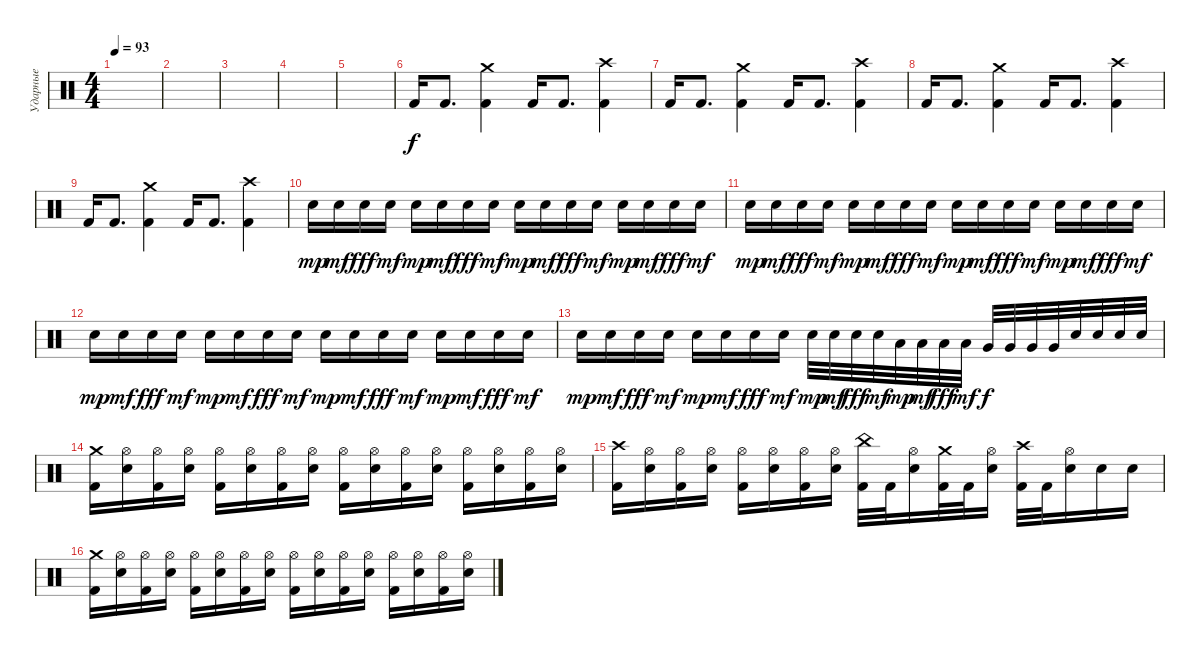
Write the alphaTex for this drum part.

\track ("Ударные" "Ударные") {instrument percussion}
\staff {score}
\articulation defaults
\ts (4 4)
\tempo 93
\clef neutral
\ks c
|
|
|
|
|
"Kick (hit) 2".16 "Kick (hit) 2".8{d} ("Crash medium (hit)" "Kick (hit) 2").4 "Kick (hit) 2".16 "Kick (hit) 2".8{d} ("Crash high (hit)" "Kick (hit) 2").4 |
"Kick (hit) 2".16 "Kick (hit) 2".8{d} ("Crash medium (hit)" "Kick (hit) 2").4 "Kick (hit) 2".16 "Kick (hit) 2".8{d} ("Crash high (hit)" "Kick (hit) 2").4 |
"Kick (hit) 2".16 "Kick (hit) 2".8{d} ("Crash medium (hit)" "Kick (hit) 2").4 "Kick (hit) 2".16 "Kick (hit) 2".8{d} ("Crash high (hit)" "Kick (hit) 2").4 |
"Kick (hit) 2".16 "Kick (hit) 2".8{d} ("Crash medium (hit)" "Kick (hit) 2").4 "Kick (hit) 2".16 "Kick (hit) 2".8{d} ("Crash high (hit)" "Kick (hit) 2").4 |
"Snare (hit) 2".16{dy mp} "Snare (hit) 2".16{dy mf} "Snare (hit) 2".16{dy fff} "Snare (hit) 2".16{dy mf} "Snare (hit) 2".16{dy mp} "Snare (hit) 2".16{dy mf} "Snare (hit) 2".16{dy fff} "Snare (hit) 2".16{dy mf} "Snare (hit) 2".16{dy mp} "Snare (hit) 2".16{dy mf} "Snare (hit) 2".16{dy fff} "Snare (hit) 2".16{dy mf} "Snare (hit) 2".16{dy mp} "Snare (hit) 2".16{dy mf} "Snare (hit) 2".16{dy fff} "Snare (hit) 2".16{dy mf} |
"Snare (hit) 2".16{dy mp} "Snare (hit) 2".16{dy mf} "Snare (hit) 2".16{dy fff} "Snare (hit) 2".16{dy mf} "Snare (hit) 2".16{dy mp} "Snare (hit) 2".16{dy mf} "Snare (hit) 2".16{dy fff} "Snare (hit) 2".16{dy mf} "Snare (hit) 2".16{dy mp} "Snare (hit) 2".16{dy mf} "Snare (hit) 2".16{dy fff} "Snare (hit) 2".16{dy mf} "Snare (hit) 2".16{dy mp} "Snare (hit) 2".16{dy mf} "Snare (hit) 2".16{dy fff} "Snare (hit) 2".16{dy mf} |
"Snare (hit) 2".16{dy mp} "Snare (hit) 2".16{dy mf} "Snare (hit) 2".16{dy fff} "Snare (hit) 2".16{dy mf} "Snare (hit) 2".16{dy mp} "Snare (hit) 2".16{dy mf} "Snare (hit) 2".16{dy fff} "Snare (hit) 2".16{dy mf} "Snare (hit) 2".16{dy mp} "Snare (hit) 2".16{dy mf} "Snare (hit) 2".16{dy fff} "Snare (hit) 2".16{dy mf} "Snare (hit) 2".16{dy mp} "Snare (hit) 2".16{dy mf} "Snare (hit) 2".16{dy fff} "Snare (hit) 2".16{dy mf} |
"Snare (hit) 2".16{dy mp} "Snare (hit) 2".16{dy mf} "Snare (hit) 2".16{dy fff} "Snare (hit) 2".16{dy mf} "Snare (hit) 2".16{dy mp} "Snare (hit) 2".16{dy mf} "Snare (hit) 2".16{dy fff} "Snare (hit) 2".16{dy mf} "Snare (hit) 2".32{dy mp} "Snare (hit) 2".32{dy mf} "Snare (hit) 2".32{dy fff} "Snare (hit) 2".32{dy mf} "Low Tom (hit)".32{dy mp} "Low Tom (hit)".32{dy mf} "Low Tom (hit)".32{dy fff} "Low Tom (hit)".32{dy mf} "Very Low Tom (hit)".32{dy f} "Very Low Tom (hit)".32 "Very Low Tom (hit)".32 "Very Low Tom (hit)".32 "Snare (hit) 2".32 "Snare (hit) 2".32 "Snare (hit) 2".32 "Snare (hit) 2".32 |
("Crash medium (hit)" "Kick (hit) 2").16 ("Hi-Hat (open)" "Snare (hit) 2").16 ("Hi-Hat (open)" "Kick (hit) 2").16 ("Hi-Hat (open)" "Snare (hit) 2").16 ("Hi-Hat (open)" "Kick (hit) 2").16 ("Hi-Hat (open)" "Snare (hit) 2").16 ("Hi-Hat (open)" "Kick (hit) 2").16 ("Hi-Hat (open)" "Snare (hit) 2").16 ("Hi-Hat (open)" "Kick (hit) 2").16 ("Hi-Hat (open)" "Snare (hit) 2").16 ("Hi-Hat (open)" "Kick (hit) 2").16 ("Hi-Hat (open)" "Snare (hit) 2").16 ("Hi-Hat (open)" "Kick (hit) 2").16 ("Hi-Hat (open)" "Snare (hit) 2").16 ("Hi-Hat (open)" "Kick (hit) 2").16 ("Hi-Hat (open)" "Snare (hit) 2").16 |
("Crash high (hit)" "Kick (hit) 2").16 ("Hi-Hat (open)" "Snare (hit) 2").16 ("Hi-Hat (open)" "Kick (hit) 2").16 ("Hi-Hat (open)" "Snare (hit) 2").16 ("Hi-Hat (open)" "Kick (hit) 2").16 ("Hi-Hat (open)" "Snare (hit) 2").16 ("Hi-Hat (open)" "Kick (hit) 2").16 ("Hi-Hat (open)" "Snare (hit) 2").16 ("China (hit)" "Kick (hit) 2").32 "Kick (hit) 2".32 ("Hi-Hat (open)" "Snare (hit) 2").16 ("Crash medium (hit)" "Kick (hit) 2").32 "Kick (hit) 2".32 ("Hi-Hat (open)" "Snare (hit) 2").16 ("Crash high (hit)" "Kick (hit) 2").32 "Kick (hit) 2".32 ("Hi-Hat (open)" "Snare (hit) 2").16 "Snare (hit) 2".16 "Snare (hit) 2".16 |
("Crash medium (hit)" "Kick (hit) 2").16 ("Hi-Hat (open)" "Snare (hit) 2").16 ("Hi-Hat (open)" "Kick (hit) 2").16 ("Hi-Hat (open)" "Snare (hit) 2").16 ("Hi-Hat (open)" "Kick (hit) 2").16 ("Hi-Hat (open)" "Snare (hit) 2").16 ("Hi-Hat (open)" "Kick (hit) 2").16 ("Hi-Hat (open)" "Snare (hit) 2").16 ("Hi-Hat (open)" "Kick (hit) 2").16 ("Hi-Hat (open)" "Snare (hit) 2").16 ("Hi-Hat (open)" "Kick (hit) 2").16 ("Hi-Hat (open)" "Snare (hit) 2").16 ("Hi-Hat (open)" "Kick (hit) 2").16 ("Hi-Hat (open)" "Snare (hit) 2").16 ("Hi-Hat (open)" "Kick (hit) 2").16 ("Hi-Hat (open)" "Snare (hit) 2").16
